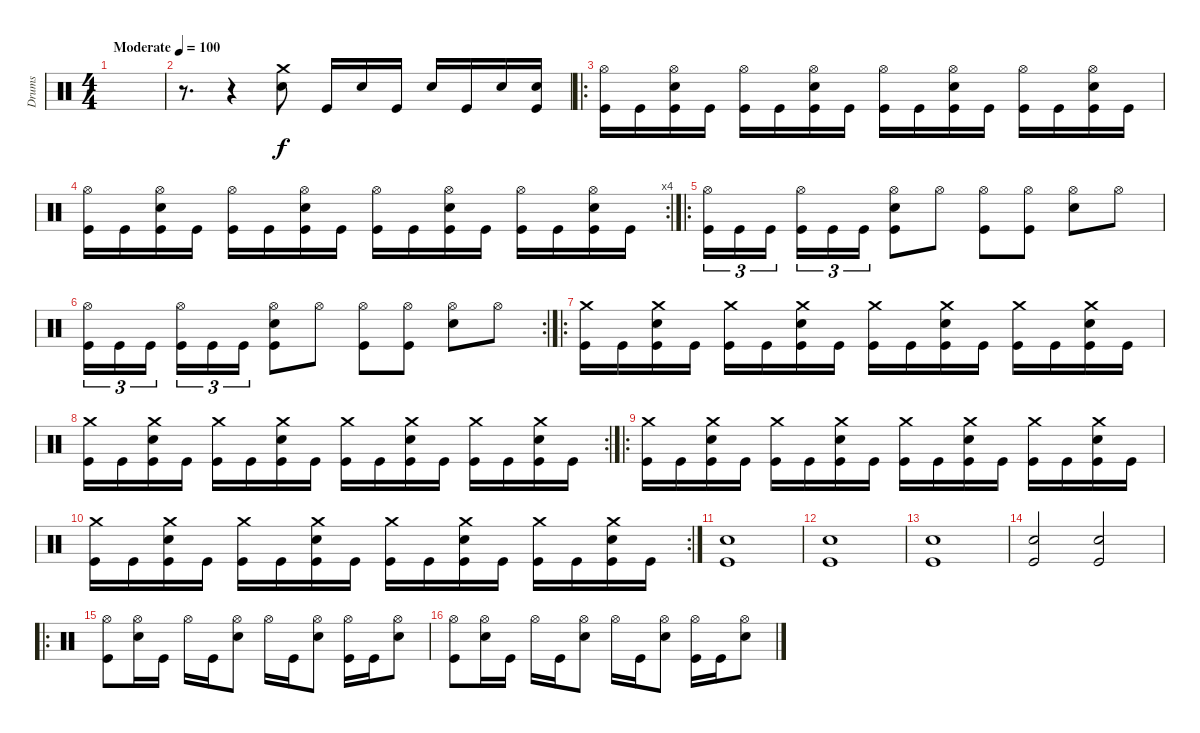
\track ("Drums" "Drums") {instrument percussion}
\staff {score}
\articulation defaults
\ts (4 4)
\tempo (100 "Moderate")
\clef neutral
\ks c
|
r.8{d} r.4 ("Crash medium (hit)" "Snare (hit) 2").8 "Kick (hit)".16 "Snare (hit) 2".16 "Kick (hit)".16 "Snare (hit) 2".16 "Kick (hit)".16 "Snare (hit) 2".16 ("Snare (hit) 2" "Kick (hit)").16 |
\ro
("Hi-Hat (open)" "Kick (hit)").16 "Kick (hit)".16 ("Hi-Hat (open)" "Snare (hit) 2" "Kick (hit)").16 "Kick (hit)".16 ("Hi-Hat (open)" "Kick (hit)").16 "Kick (hit)".16 ("Hi-Hat (open)" "Snare (hit) 2" "Kick (hit)").16 "Kick (hit)".16 ("Hi-Hat (open)" "Kick (hit)").16 "Kick (hit)".16 ("Hi-Hat (open)" "Snare (hit) 2" "Kick (hit)").16 "Kick (hit)".16 ("Hi-Hat (open)" "Kick (hit)").16 "Kick (hit)".16 ("Hi-Hat (open)" "Snare (hit) 2" "Kick (hit)").16 "Kick (hit)".16 |
\rc 4
("Hi-Hat (open)" "Kick (hit)").16 "Kick (hit)".16 ("Hi-Hat (open)" "Snare (hit) 2" "Kick (hit)").16 "Kick (hit)".16 ("Hi-Hat (open)" "Kick (hit)").16 "Kick (hit)".16 ("Hi-Hat (open)" "Snare (hit) 2" "Kick (hit)").16 "Kick (hit)".16 ("Hi-Hat (open)" "Kick (hit)").16 "Kick (hit)".16 ("Hi-Hat (open)" "Snare (hit) 2" "Kick (hit)").16 "Kick (hit)".16 ("Hi-Hat (open)" "Kick (hit)").16 "Kick (hit)".16 ("Hi-Hat (open)" "Snare (hit) 2" "Kick (hit)").16 "Kick (hit)".16 |
\ro
("Hi-Hat (open)" "Kick (hit)").16{tu (3 2)} "Kick (hit)".16{tu (3 2)} "Kick (hit)".16{tu (3 2) beam splitsecondary} ("Hi-Hat (open)" "Kick (hit)").16{tu (3 2)} "Kick (hit)".16{tu (3 2)} "Kick (hit)".16{tu (3 2)} ("Hi-Hat (open)" "Snare (hit) 2" "Kick (hit)").8 "Hi-Hat (open)".8 ("Hi-Hat (open)" "Kick (hit)").8 ("Hi-Hat (open)" "Kick (hit)").8 ("Hi-Hat (open)" "Snare (hit) 2").8 "Hi-Hat (open)".8 |
\rc 2
("Hi-Hat (open)" "Kick (hit)").16{tu (3 2)} "Kick (hit)".16{tu (3 2)} "Kick (hit)".16{tu (3 2) beam splitsecondary} ("Hi-Hat (open)" "Kick (hit)").16{tu (3 2)} "Kick (hit)".16{tu (3 2)} "Kick (hit)".16{tu (3 2)} ("Hi-Hat (open)" "Snare (hit) 2" "Kick (hit)").8 "Hi-Hat (open)".8 ("Hi-Hat (open)" "Kick (hit)").8 ("Hi-Hat (open)" "Kick (hit)").8 ("Hi-Hat (open)" "Snare (hit) 2").8 "Hi-Hat (open)".8 |
\ro
("Crash medium (hit)" "Kick (hit)").16 "Kick (hit)".16 ("Crash medium (hit)" "Snare (hit) 2" "Kick (hit)").16 "Kick (hit)".16 ("Crash medium (hit)" "Kick (hit)").16 "Kick (hit)".16 ("Crash medium (hit)" "Snare (hit) 2" "Kick (hit)").16 "Kick (hit)".16 ("Crash medium (hit)" "Kick (hit)").16 "Kick (hit)".16 ("Crash medium (hit)" "Snare (hit) 2" "Kick (hit)").16 "Kick (hit)".16 ("Crash medium (hit)" "Kick (hit)").16 "Kick (hit)".16 ("Crash medium (hit)" "Snare (hit) 2" "Kick (hit)").16 "Kick (hit)".16 |
\rc 2
("Crash medium (hit)" "Kick (hit)").16 "Kick (hit)".16 ("Crash medium (hit)" "Snare (hit) 2" "Kick (hit)").16 "Kick (hit)".16 ("Crash medium (hit)" "Kick (hit)").16 "Kick (hit)".16 ("Crash medium (hit)" "Snare (hit) 2" "Kick (hit)").16 "Kick (hit)".16 ("Crash medium (hit)" "Kick (hit)").16 "Kick (hit)".16 ("Crash medium (hit)" "Snare (hit) 2" "Kick (hit)").16 "Kick (hit)".16 ("Crash medium (hit)" "Kick (hit)").16 "Kick (hit)".16 ("Crash medium (hit)" "Snare (hit) 2" "Kick (hit)").16 "Kick (hit)".16 |
\ro
("Crash medium (hit)" "Kick (hit)").16 "Kick (hit)".16 ("Crash medium (hit)" "Snare (hit) 2" "Kick (hit)").16 "Kick (hit)".16 ("Crash medium (hit)" "Kick (hit)").16 "Kick (hit)".16 ("Crash medium (hit)" "Snare (hit) 2" "Kick (hit)").16 "Kick (hit)".16 ("Crash medium (hit)" "Kick (hit)").16 "Kick (hit)".16 ("Crash medium (hit)" "Snare (hit) 2" "Kick (hit)").16 "Kick (hit)".16 ("Crash medium (hit)" "Kick (hit)").16 "Kick (hit)".16 ("Crash medium (hit)" "Snare (hit) 2" "Kick (hit)").16 "Kick (hit)".16 |
\rc 2
("Crash medium (hit)" "Kick (hit)").16 "Kick (hit)".16 ("Crash medium (hit)" "Snare (hit) 2" "Kick (hit)").16 "Kick (hit)".16 ("Crash medium (hit)" "Kick (hit)").16 "Kick (hit)".16 ("Crash medium (hit)" "Snare (hit) 2" "Kick (hit)").16 "Kick (hit)".16 ("Crash medium (hit)" "Kick (hit)").16 "Kick (hit)".16 ("Crash medium (hit)" "Snare (hit) 2" "Kick (hit)").16 "Kick (hit)".16 ("Crash medium (hit)" "Kick (hit)").16 "Kick (hit)".16 ("Crash medium (hit)" "Snare (hit) 2" "Kick (hit)").16 "Kick (hit)".16 |
("Snare (hit) 2" "Kick (hit)").1 |
("Snare (hit) 2" "Kick (hit)").1 |
("Snare (hit) 2" "Kick (hit)").1 |
("Snare (hit) 2" "Kick (hit)").2 ("Snare (hit) 2" "Kick (hit)").2 |
\ro
("Hi-Hat (open)" "Kick (hit)").8 ("Hi-Hat (open)" "Snare (hit) 2").16 "Kick (hit)".16 "Hi-Hat (open)".16 "Kick (hit)".16 ("Hi-Hat (open)" "Snare (hit) 2").8 "Hi-Hat (open)".16 "Kick (hit)".16 ("Hi-Hat (open)" "Snare (hit) 2").8 ("Hi-Hat (open)" "Kick (hit)").16 "Kick (hit)".16 ("Hi-Hat (open)" "Snare (hit) 2").8 |
("Hi-Hat (open)" "Kick (hit)").8 ("Hi-Hat (open)" "Snare (hit) 2").16 "Kick (hit)".16 "Hi-Hat (open)".16 "Kick (hit)".16 ("Hi-Hat (open)" "Snare (hit) 2").8 "Hi-Hat (open)".16 "Kick (hit)".16 ("Hi-Hat (open)" "Snare (hit) 2").8 ("Hi-Hat (open)" "Kick (hit)").16 "Kick (hit)".16 ("Hi-Hat (open)" "Snare (hit) 2").8
